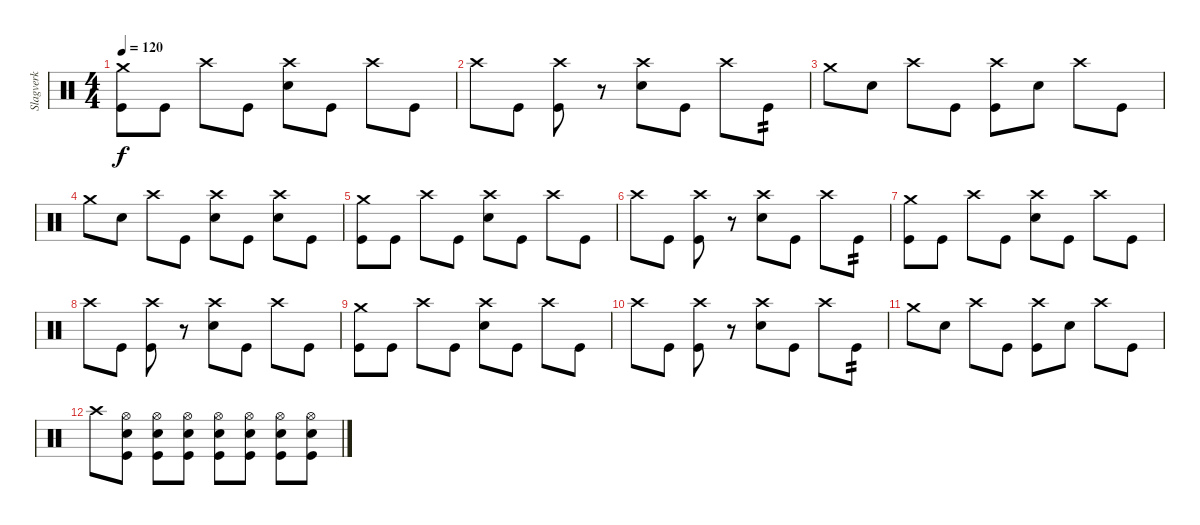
\track ("Slagverk" "Slagverk") {instrument percussion}
\staff {score}
\articulation defaults
\ts (4 4)
\tempo 120
\clef neutral
\ks c
("Crash medium (hit)" "Kick (hit)").8{dy f} "Kick (hit)".8 "Crash high (hit)".8 "Kick (hit)".8 ("Crash high (hit)" "Snare (hit) 2").8 "Kick (hit)".8 "Crash high (hit)".8 "Kick (hit)".8 |
"Crash high (hit)".8 "Kick (hit)".8 ("Crash high (hit)" "Kick (hit)").8 r.8 ("Crash high (hit)" "Snare (hit) 2").8 "Kick (hit)".8 "Crash high (hit)".8 "Kick (hit)".8{tp 2} |
"Crash medium (hit)".8 "Snare (hit) 2".8 "Crash high (hit)".8 "Kick (hit)".8 ("Crash high (hit)" "Kick (hit)").8 "Snare (hit) 2".8 "Crash high (hit)".8 "Kick (hit)".8 |
"Crash medium (hit)".8 "Snare (hit) 2".8 "Crash high (hit)".8 "Kick (hit)".8 ("Crash high (hit)" "Snare (hit) 2").8 "Kick (hit)".8 ("Crash high (hit)" "Snare (hit) 2").8 "Kick (hit)".8 |
("Crash medium (hit)" "Kick (hit)").8 "Kick (hit)".8 "Crash high (hit)".8 "Kick (hit)".8 ("Crash high (hit)" "Snare (hit) 2").8 "Kick (hit)".8 "Crash high (hit)".8 "Kick (hit)".8 |
"Crash high (hit)".8 "Kick (hit)".8 ("Crash high (hit)" "Kick (hit)").8 r.8 ("Crash high (hit)" "Snare (hit) 2").8 "Kick (hit)".8 "Crash high (hit)".8 "Kick (hit)".8{tp 2} |
("Crash medium (hit)" "Kick (hit)").8 "Kick (hit)".8 "Crash high (hit)".8 "Kick (hit)".8 ("Crash high (hit)" "Snare (hit) 2").8 "Kick (hit)".8 "Crash high (hit)".8 "Kick (hit)".8 |
"Crash high (hit)".8 "Kick (hit)".8 ("Crash high (hit)" "Kick (hit)").8 r.8 ("Crash high (hit)" "Snare (hit) 2").8 "Kick (hit)".8 "Crash high (hit)".8 "Kick (hit)".8 |
("Crash medium (hit)" "Kick (hit)").8 "Kick (hit)".8 "Crash high (hit)".8 "Kick (hit)".8 ("Crash high (hit)" "Snare (hit) 2").8 "Kick (hit)".8 "Crash high (hit)".8 "Kick (hit)".8 |
"Crash high (hit)".8 "Kick (hit)".8 ("Crash high (hit)" "Kick (hit)").8 r.8 ("Crash high (hit)" "Snare (hit) 2").8 "Kick (hit)".8 "Crash high (hit)".8 "Kick (hit)".8{tp 2} |
"Crash medium (hit)".8 "Snare (hit) 2".8 "Crash high (hit)".8 "Kick (hit)".8 ("Crash high (hit)" "Kick (hit)").8 "Snare (hit) 2".8 "Crash high (hit)".8 "Kick (hit)".8 |
"Crash high (hit)".8 ("Hi-Hat (open)" "Snare (hit) 2" "Kick (hit)").8 ("Hi-Hat (open)" "Snare (hit) 2" "Kick (hit)").8 ("Hi-Hat (open)" "Snare (hit) 2" "Kick (hit)").8 ("Hi-Hat (open)" "Snare (hit) 2" "Kick (hit)").8 ("Hi-Hat (open)" "Snare (hit) 2" "Kick (hit)").8 ("Hi-Hat (open)" "Snare (hit) 2" "Kick (hit)").8 ("Hi-Hat (open)" "Snare (hit) 2" "Kick (hit)").8
